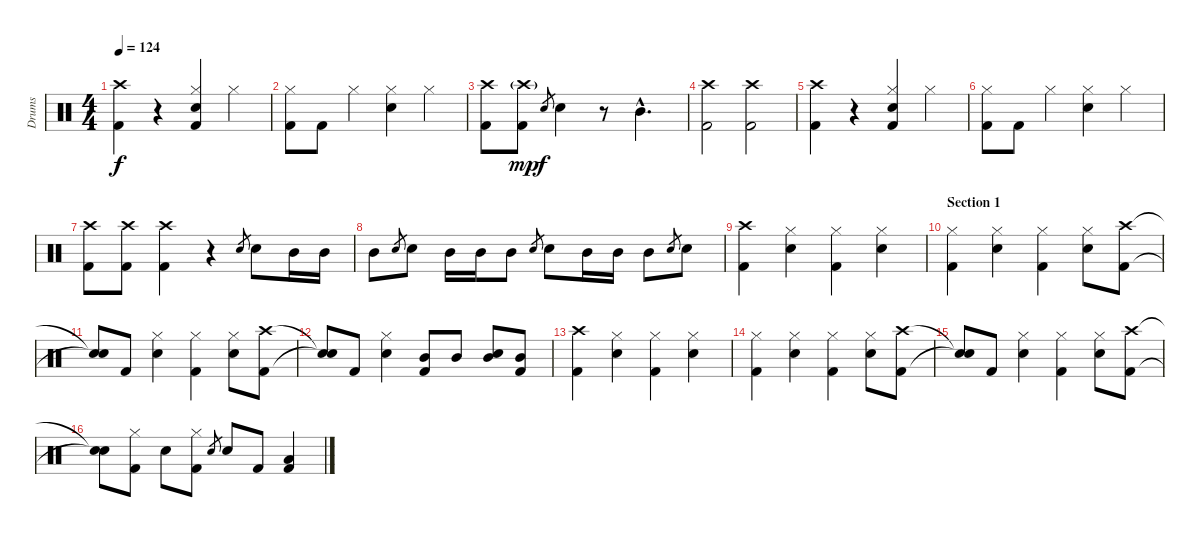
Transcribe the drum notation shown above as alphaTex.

\track ("Drums" "Drums") {instrument percussion}
\staff {score}
\articulation defaults
\ts (4 4)
\tempo 124
\clef neutral
\ks c
("Crash high (hit)" "Kick (hit) 2").4{dy f} r.4 ("Hi-Hat (closed)" "Snare (hit) 2" "Kick (hit) 2").4 "Hi-Hat (closed)".4 |
("Hi-Hat (closed)" "Kick (hit) 2").8 "Kick (hit) 2".8 "Hi-Hat (closed)".4 ("Hi-Hat (closed)" "Snare (hit) 2").4 "Hi-Hat (closed)".4 |
("Crash high (hit)" "Kick (hit) 2").8 ("Crash high (hit)"{g} "Kick (hit) 2").8{dy mp} "Snare (hit) 2".8{gr dy f} "Snare (hit) 2".4 r.8 "Mid Tom (hit)"{hac}.4{d} |
("Crash high (hit)" "Kick (hit) 2").2 ("Crash high (hit)" "Kick (hit) 2").2 |
("Crash high (hit)" "Kick (hit) 2").4 r.4 ("Hi-Hat (closed)" "Snare (hit) 2" "Kick (hit) 2").4 "Hi-Hat (closed)".4 |
("Hi-Hat (closed)" "Kick (hit) 2").8 "Kick (hit) 2".8 "Hi-Hat (closed)".4 ("Hi-Hat (closed)" "Snare (hit) 2").4 "Hi-Hat (closed)".4 |
("Crash high (hit)" "Kick (hit) 2").8 ("Crash high (hit)" "Kick (hit) 2").8 ("Crash high (hit)" "Kick (hit) 2").4 r.4 "Snare (hit) 2".8{gr} "Snare (hit) 2".8 "Mid Tom (hit)".16 "Mid Tom (hit)".16 |
"Mid Tom (hit)".8 "Snare (hit) 2".8{gr} "Snare (hit) 2".8 "Mid Tom (hit)".16 "Mid Tom (hit)".16 "Mid Tom (hit)".8 "Snare (hit) 2".8{gr} "Snare (hit) 2".8 "Mid Tom (hit)".16 "Mid Tom (hit)".16 "Mid Tom (hit)".8 "Snare (hit) 2".8{gr} "Snare (hit) 2".8 |
("Crash high (hit)" "Kick (hit) 2").4 ("Hi-Hat (closed)" "Snare (hit) 2").4 ("Hi-Hat (closed)" "Kick (hit) 2").4 ("Hi-Hat (closed)" "Snare (hit) 2").4 |
\section ("" "Section 1")
("Hi-Hat (closed)" "Kick (hit) 2").4 ("Hi-Hat (closed)" "Snare (hit) 2").4 ("Hi-Hat (closed)" "Kick (hit) 2").4 ("Hi-Hat (closed)" "Snare (hit) 2").8 ("Crash high (hit)" "Kick (hit) 2").8 |
("Snare (hit)"{t} "Snare (hit)"{t}).8 "Kick (hit) 2".8 ("Hi-Hat (closed)" "Snare (hit) 2").4 ("Hi-Hat (closed)" "Kick (hit) 2").4 ("Hi-Hat (closed)" "Snare (hit) 2").8 ("Crash high (hit)" "Kick (hit) 2").8 |
("Snare (hit)"{t} "Snare (hit)"{t}).8 "Kick (hit) 2".8 ("Hi-Hat (closed)" "Snare (hit) 2").4 ("Mid Tom (hit)" "Kick (hit) 2").8 "Mid Tom (hit)".8 ("Mid Tom (hit)" "Snare (hit) 2").8 ("Mid Tom (hit)" "Kick (hit) 2").8 |
("Crash high (hit)" "Kick (hit) 2").4 ("Hi-Hat (closed)" "Snare (hit) 2").4 ("Hi-Hat (closed)" "Kick (hit) 2").4 ("Hi-Hat (closed)" "Snare (hit) 2").4 |
("Hi-Hat (closed)" "Kick (hit) 2").4 ("Hi-Hat (closed)" "Snare (hit) 2").4 ("Hi-Hat (closed)" "Kick (hit) 2").4 ("Hi-Hat (closed)" "Snare (hit) 2").8 ("Crash high (hit)" "Kick (hit) 2").8 |
("Snare (hit)"{t} "Snare (hit)"{t}).8 "Kick (hit) 2".8 ("Hi-Hat (closed)" "Snare (hit) 2").4 ("Hi-Hat (closed)" "Kick (hit) 2").4 ("Hi-Hat (closed)" "Snare (hit) 2").8 ("Crash high (hit)" "Kick (hit) 2").8 |
("Snare (hit)"{t} "Snare (hit)"{t}).8 ("Hi-Hat (closed)" "Kick (hit) 2").8 "Snare (hit) 2".8 ("Hi-Hat (closed)" "Kick (hit) 2").8 "Snare (hit) 2".8{gr} "Snare (hit) 2".8 "Kick (hit) 2".8 ("Low Floor Tom (hit)" "Kick (hit) 2").4
